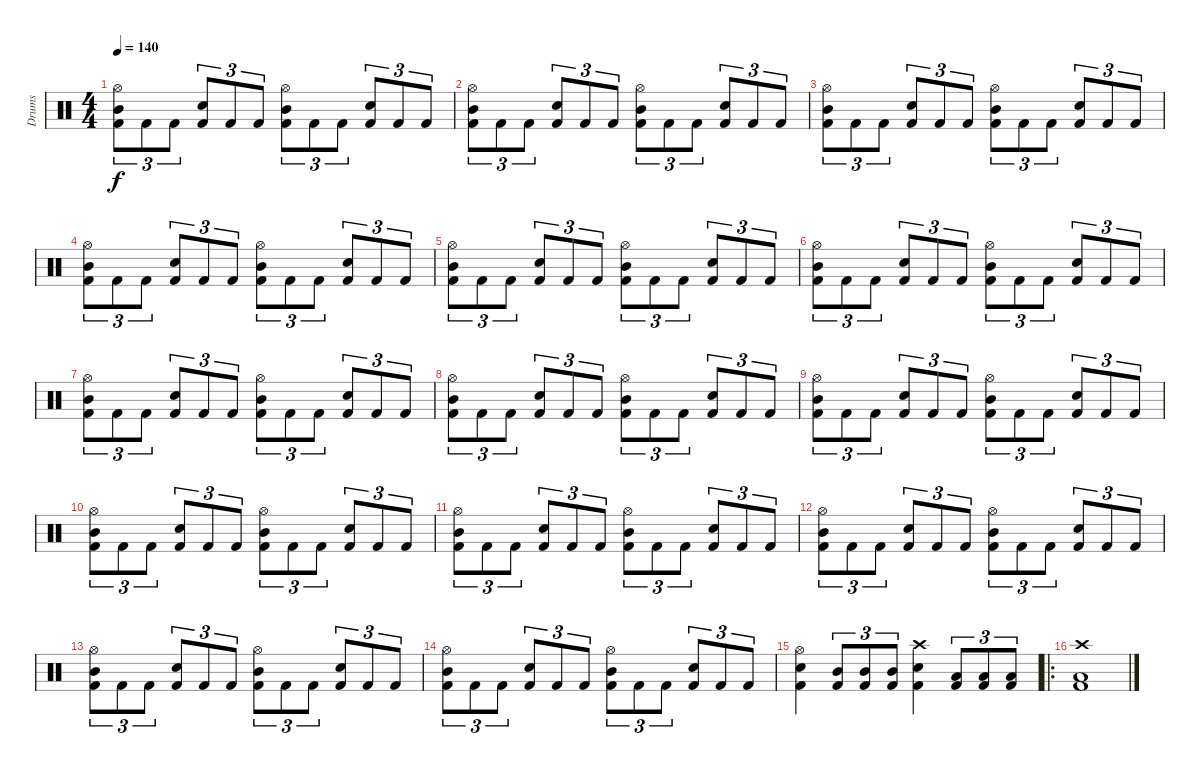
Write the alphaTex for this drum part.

\track ("Drums" "Drums") {instrument percussion}
\staff {score}
\articulation defaults
\ts (4 4)
\tempo 140
\clef neutral
\ks c
("Hi-Hat (open)" "Mid Tom (hit)" "Kick (hit) 2").8{tu (3 2) dy f} "Kick (hit) 2".8{tu (3 2)} "Kick (hit) 2".8{tu (3 2)} ("Electric Snare (hit)" "Kick (hit) 2").8{tu (3 2)} "Kick (hit) 2".8{tu (3 2)} "Kick (hit) 2".8{tu (3 2)} ("Hi-Hat (open)" "Mid Tom (hit)" "Kick (hit) 2").8{tu (3 2)} "Kick (hit) 2".8{tu (3 2)} "Kick (hit) 2".8{tu (3 2)} ("Electric Snare (hit)" "Kick (hit) 2").8{tu (3 2)} "Kick (hit) 2".8{tu (3 2)} "Kick (hit) 2".8{tu (3 2)} |
("Hi-Hat (open)" "Mid Tom (hit)" "Kick (hit) 2").8{tu (3 2)} "Kick (hit) 2".8{tu (3 2)} "Kick (hit) 2".8{tu (3 2)} ("Electric Snare (hit)" "Kick (hit) 2").8{tu (3 2)} "Kick (hit) 2".8{tu (3 2)} "Kick (hit) 2".8{tu (3 2)} ("Hi-Hat (open)" "Mid Tom (hit)" "Kick (hit) 2").8{tu (3 2)} "Kick (hit) 2".8{tu (3 2)} "Kick (hit) 2".8{tu (3 2)} ("Electric Snare (hit)" "Kick (hit) 2").8{tu (3 2)} "Kick (hit) 2".8{tu (3 2)} "Kick (hit) 2".8{tu (3 2)} |
("Hi-Hat (open)" "Mid Tom (hit)" "Kick (hit) 2").8{tu (3 2)} "Kick (hit) 2".8{tu (3 2)} "Kick (hit) 2".8{tu (3 2)} ("Electric Snare (hit)" "Kick (hit) 2").8{tu (3 2)} "Kick (hit) 2".8{tu (3 2)} "Kick (hit) 2".8{tu (3 2)} ("Hi-Hat (open)" "Mid Tom (hit)" "Kick (hit) 2").8{tu (3 2)} "Kick (hit) 2".8{tu (3 2)} "Kick (hit) 2".8{tu (3 2)} ("Electric Snare (hit)" "Kick (hit) 2").8{tu (3 2)} "Kick (hit) 2".8{tu (3 2)} "Kick (hit) 2".8{tu (3 2)} |
("Hi-Hat (open)" "Mid Tom (hit)" "Kick (hit) 2").8{tu (3 2)} "Kick (hit) 2".8{tu (3 2)} "Kick (hit) 2".8{tu (3 2)} ("Electric Snare (hit)" "Kick (hit) 2").8{tu (3 2)} "Kick (hit) 2".8{tu (3 2)} "Kick (hit) 2".8{tu (3 2)} ("Hi-Hat (open)" "Mid Tom (hit)" "Kick (hit) 2").8{tu (3 2)} "Kick (hit) 2".8{tu (3 2)} "Kick (hit) 2".8{tu (3 2)} ("Electric Snare (hit)" "Kick (hit) 2").8{tu (3 2)} "Kick (hit) 2".8{tu (3 2)} "Kick (hit) 2".8{tu (3 2)} |
("Hi-Hat (open)" "Mid Tom (hit)" "Kick (hit) 2").8{tu (3 2)} "Kick (hit) 2".8{tu (3 2)} "Kick (hit) 2".8{tu (3 2)} ("Electric Snare (hit)" "Kick (hit) 2").8{tu (3 2)} "Kick (hit) 2".8{tu (3 2)} "Kick (hit) 2".8{tu (3 2)} ("Hi-Hat (open)" "Mid Tom (hit)" "Kick (hit) 2").8{tu (3 2)} "Kick (hit) 2".8{tu (3 2)} "Kick (hit) 2".8{tu (3 2)} ("Electric Snare (hit)" "Kick (hit) 2").8{tu (3 2)} "Kick (hit) 2".8{tu (3 2)} "Kick (hit) 2".8{tu (3 2)} |
("Hi-Hat (open)" "Mid Tom (hit)" "Kick (hit) 2").8{tu (3 2)} "Kick (hit) 2".8{tu (3 2)} "Kick (hit) 2".8{tu (3 2)} ("Electric Snare (hit)" "Kick (hit) 2").8{tu (3 2)} "Kick (hit) 2".8{tu (3 2)} "Kick (hit) 2".8{tu (3 2)} ("Hi-Hat (open)" "Mid Tom (hit)" "Kick (hit) 2").8{tu (3 2)} "Kick (hit) 2".8{tu (3 2)} "Kick (hit) 2".8{tu (3 2)} ("Electric Snare (hit)" "Kick (hit) 2").8{tu (3 2)} "Kick (hit) 2".8{tu (3 2)} "Kick (hit) 2".8{tu (3 2)} |
("Hi-Hat (open)" "Mid Tom (hit)" "Kick (hit) 2").8{tu (3 2)} "Kick (hit) 2".8{tu (3 2)} "Kick (hit) 2".8{tu (3 2)} ("Electric Snare (hit)" "Kick (hit) 2").8{tu (3 2)} "Kick (hit) 2".8{tu (3 2)} "Kick (hit) 2".8{tu (3 2)} ("Hi-Hat (open)" "Mid Tom (hit)" "Kick (hit) 2").8{tu (3 2)} "Kick (hit) 2".8{tu (3 2)} "Kick (hit) 2".8{tu (3 2)} ("Electric Snare (hit)" "Kick (hit) 2").8{tu (3 2)} "Kick (hit) 2".8{tu (3 2)} "Kick (hit) 2".8{tu (3 2)} |
("Hi-Hat (open)" "Mid Tom (hit)" "Kick (hit) 2").8{tu (3 2)} "Kick (hit) 2".8{tu (3 2)} "Kick (hit) 2".8{tu (3 2)} ("Electric Snare (hit)" "Kick (hit) 2").8{tu (3 2)} "Kick (hit) 2".8{tu (3 2)} "Kick (hit) 2".8{tu (3 2)} ("Hi-Hat (open)" "Mid Tom (hit)" "Kick (hit) 2").8{tu (3 2)} "Kick (hit) 2".8{tu (3 2)} "Kick (hit) 2".8{tu (3 2)} ("Electric Snare (hit)" "Kick (hit) 2").8{tu (3 2)} "Kick (hit) 2".8{tu (3 2)} "Kick (hit) 2".8{tu (3 2)} |
("Hi-Hat (open)" "Mid Tom (hit)" "Kick (hit) 2").8{tu (3 2)} "Kick (hit) 2".8{tu (3 2)} "Kick (hit) 2".8{tu (3 2)} ("Electric Snare (hit)" "Kick (hit) 2").8{tu (3 2)} "Kick (hit) 2".8{tu (3 2)} "Kick (hit) 2".8{tu (3 2)} ("Hi-Hat (open)" "Mid Tom (hit)" "Kick (hit) 2").8{tu (3 2)} "Kick (hit) 2".8{tu (3 2)} "Kick (hit) 2".8{tu (3 2)} ("Electric Snare (hit)" "Kick (hit) 2").8{tu (3 2)} "Kick (hit) 2".8{tu (3 2)} "Kick (hit) 2".8{tu (3 2)} |
("Hi-Hat (open)" "Mid Tom (hit)" "Kick (hit) 2").8{tu (3 2)} "Kick (hit) 2".8{tu (3 2)} "Kick (hit) 2".8{tu (3 2)} ("Electric Snare (hit)" "Kick (hit) 2").8{tu (3 2)} "Kick (hit) 2".8{tu (3 2)} "Kick (hit) 2".8{tu (3 2)} ("Hi-Hat (open)" "Mid Tom (hit)" "Kick (hit) 2").8{tu (3 2)} "Kick (hit) 2".8{tu (3 2)} "Kick (hit) 2".8{tu (3 2)} ("Electric Snare (hit)" "Kick (hit) 2").8{tu (3 2)} "Kick (hit) 2".8{tu (3 2)} "Kick (hit) 2".8{tu (3 2)} |
("Hi-Hat (open)" "Mid Tom (hit)" "Kick (hit) 2").8{tu (3 2)} "Kick (hit) 2".8{tu (3 2)} "Kick (hit) 2".8{tu (3 2)} ("Electric Snare (hit)" "Kick (hit) 2").8{tu (3 2)} "Kick (hit) 2".8{tu (3 2)} "Kick (hit) 2".8{tu (3 2)} ("Hi-Hat (open)" "Mid Tom (hit)" "Kick (hit) 2").8{tu (3 2)} "Kick (hit) 2".8{tu (3 2)} "Kick (hit) 2".8{tu (3 2)} ("Electric Snare (hit)" "Kick (hit) 2").8{tu (3 2)} "Kick (hit) 2".8{tu (3 2)} "Kick (hit) 2".8{tu (3 2)} |
("Hi-Hat (open)" "Mid Tom (hit)" "Kick (hit) 2").8{tu (3 2)} "Kick (hit) 2".8{tu (3 2)} "Kick (hit) 2".8{tu (3 2)} ("Electric Snare (hit)" "Kick (hit) 2").8{tu (3 2)} "Kick (hit) 2".8{tu (3 2)} "Kick (hit) 2".8{tu (3 2)} ("Hi-Hat (open)" "Mid Tom (hit)" "Kick (hit) 2").8{tu (3 2)} "Kick (hit) 2".8{tu (3 2)} "Kick (hit) 2".8{tu (3 2)} ("Electric Snare (hit)" "Kick (hit) 2").8{tu (3 2)} "Kick (hit) 2".8{tu (3 2)} "Kick (hit) 2".8{tu (3 2)} |
("Hi-Hat (open)" "Mid Tom (hit)" "Kick (hit) 2").8{tu (3 2)} "Kick (hit) 2".8{tu (3 2)} "Kick (hit) 2".8{tu (3 2)} ("Electric Snare (hit)" "Kick (hit) 2").8{tu (3 2)} "Kick (hit) 2".8{tu (3 2)} "Kick (hit) 2".8{tu (3 2)} ("Hi-Hat (open)" "Mid Tom (hit)" "Kick (hit) 2").8{tu (3 2)} "Kick (hit) 2".8{tu (3 2)} "Kick (hit) 2".8{tu (3 2)} ("Electric Snare (hit)" "Kick (hit) 2").8{tu (3 2)} "Kick (hit) 2".8{tu (3 2)} "Kick (hit) 2".8{tu (3 2)} |
("Hi-Hat (open)" "Mid Tom (hit)" "Kick (hit) 2").8{tu (3 2)} "Kick (hit) 2".8{tu (3 2)} "Kick (hit) 2".8{tu (3 2)} ("Electric Snare (hit)" "Kick (hit) 2").8{tu (3 2)} "Kick (hit) 2".8{tu (3 2)} "Kick (hit) 2".8{tu (3 2)} ("Hi-Hat (open)" "Mid Tom (hit)" "Kick (hit) 2").8{tu (3 2)} "Kick (hit) 2".8{tu (3 2)} "Kick (hit) 2".8{tu (3 2)} ("Electric Snare (hit)" "Kick (hit) 2").8{tu (3 2)} "Kick (hit) 2".8{tu (3 2)} "Kick (hit) 2".8{tu (3 2)} |
("Hi-Hat (open)" "Electric Snare (hit)" "Kick (hit) 2").4 ("Kick (hit) 2" "Mid Tom (hit)").8{tu (3 2)} ("Kick (hit) 2" "Mid Tom (hit)").8{tu (3 2)} ("Kick (hit) 2" "Mid Tom (hit)").8{tu (3 2)} ("Crash high (hit)" "Electric Snare (hit)" "Kick (hit) 2").4 ("Kick (hit) 2" "Low Tom (hit)").8{tu (3 2)} ("Kick (hit) 2" "Low Tom (hit)").8{tu (3 2)} ("Kick (hit) 2" "Low Tom (hit)").8{tu (3 2)} |
\ro
("Crash high (hit)" "Low Tom (hit)" "Kick (hit) 2").1
